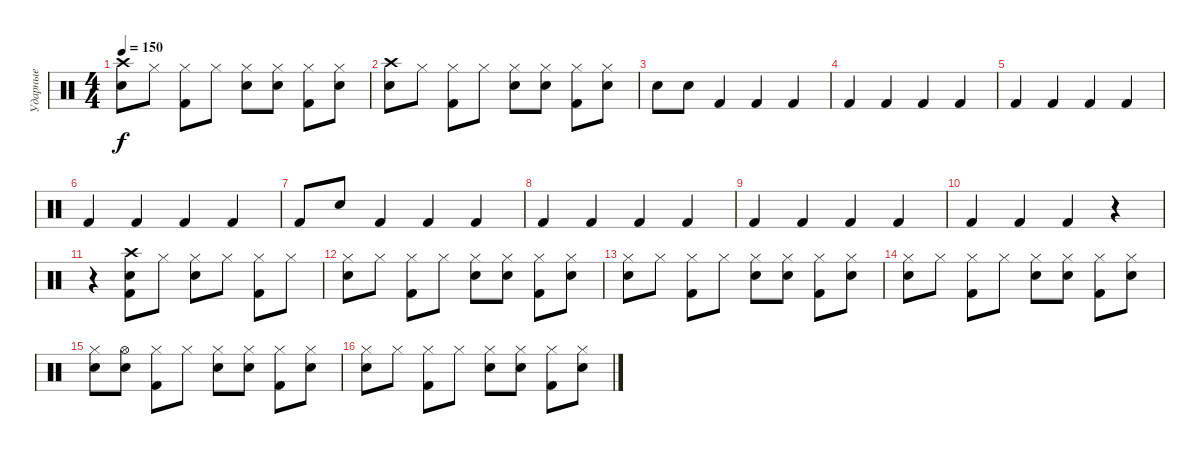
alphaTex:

\track ("Ударные" "Ударные") {instrument percussion}
\staff {score}
\articulation defaults
\ts (4 4)
\tempo 150
\clef neutral
\ks c
("Crash high (hit)" "Electric Snare (hit)").8{dy f} "Hi-Hat (closed)".8 ("Hi-Hat (closed)" "Kick (hit) 2").8 "Hi-Hat (closed)".8 ("Hi-Hat (closed)" "Electric Snare (hit)").8 ("Hi-Hat (closed)" "Snare (hit)").8 ("Hi-Hat (closed)" "Kick (hit) 2").8 ("Hi-Hat (closed)" "Snare (hit)").8 |
("Crash high (hit)" "Electric Snare (hit)").8 "Hi-Hat (closed)".8 ("Hi-Hat (closed)" "Kick (hit) 2").8 "Hi-Hat (closed)".8 ("Hi-Hat (closed)" "Electric Snare (hit)").8 ("Hi-Hat (closed)" "Snare (hit)").8 ("Hi-Hat (closed)" "Kick (hit) 2").8 ("Hi-Hat (closed)" "Snare (hit)").8 |
"Electric Snare (hit)".8 "Electric Snare (hit)".8 "Kick (hit) 2".4 "Kick (hit) 2".4 "Kick (hit) 2".4 |
"Kick (hit) 2".4 "Kick (hit) 2".4 "Kick (hit) 2".4 "Kick (hit) 2".4 |
"Kick (hit) 2".4 "Kick (hit) 2".4 "Kick (hit) 2".4 "Kick (hit) 2".4 |
"Kick (hit) 2".4 "Kick (hit) 2".4 "Kick (hit) 2".4 "Kick (hit) 2".4 |
"Kick (hit) 2".8 "Snare (hit) 2".8 "Kick (hit) 2".4 "Kick (hit) 2".4 "Kick (hit) 2".4 |
"Kick (hit) 2".4 "Kick (hit) 2".4 "Kick (hit) 2".4 "Kick (hit) 2".4 |
"Kick (hit) 2".4 "Kick (hit) 2".4 "Kick (hit) 2".4 "Kick (hit) 2".4 |
"Kick (hit) 2".4 "Kick (hit) 2".4 "Kick (hit) 2".4 r.4 |
r.4 ("Snare (hit)" "Kick (hit) 2" "Crash high (hit)").8 "Hi-Hat (closed)".8 ("Hi-Hat (closed)" "Electric Snare (hit)").8 "Hi-Hat (closed)".8 ("Hi-Hat (closed)" "Kick (hit) 2").8 "Hi-Hat (closed)".8 |
("Hi-Hat (closed)" "Electric Snare (hit)").8 "Hi-Hat (closed)".8 ("Hi-Hat (closed)" "Kick (hit) 2").8 "Hi-Hat (closed)".8 ("Hi-Hat (closed)" "Electric Snare (hit)").8 ("Hi-Hat (closed)" "Snare (hit)").8 ("Hi-Hat (closed)" "Kick (hit) 2").8 ("Hi-Hat (closed)" "Snare (hit)").8 |
("Hi-Hat (closed)" "Electric Snare (hit)").8 "Hi-Hat (closed)".8 ("Hi-Hat (closed)" "Kick (hit) 2").8 "Hi-Hat (closed)".8 ("Hi-Hat (closed)" "Electric Snare (hit)").8 ("Hi-Hat (closed)" "Snare (hit)").8 ("Hi-Hat (closed)" "Kick (hit) 2").8 ("Hi-Hat (closed)" "Snare (hit)").8 |
("Hi-Hat (closed)" "Electric Snare (hit)").8 "Hi-Hat (closed)".8 ("Hi-Hat (closed)" "Kick (hit) 2").8 "Hi-Hat (closed)".8 ("Hi-Hat (closed)" "Electric Snare (hit)").8 ("Hi-Hat (closed)" "Snare (hit)").8 ("Hi-Hat (closed)" "Kick (hit) 2").8 ("Hi-Hat (closed)" "Snare (hit)").8 |
("Hi-Hat (closed)" "Electric Snare (hit)").8 ("Snare (hit)" "Hi-Hat (open)").8 ("Hi-Hat (closed)" "Kick (hit) 2").8 "Hi-Hat (closed)".8 ("Hi-Hat (closed)" "Electric Snare (hit)").8 ("Hi-Hat (closed)" "Snare (hit)").8 ("Hi-Hat (closed)" "Kick (hit) 2").8 ("Hi-Hat (closed)" "Snare (hit)").8 |
("Hi-Hat (closed)" "Electric Snare (hit)").8 "Hi-Hat (closed)".8 ("Hi-Hat (closed)" "Kick (hit) 2").8 "Hi-Hat (closed)".8 ("Hi-Hat (closed)" "Electric Snare (hit)").8 ("Hi-Hat (closed)" "Snare (hit)").8 ("Hi-Hat (closed)" "Kick (hit) 2").8 ("Hi-Hat (closed)" "Snare (hit)").8
